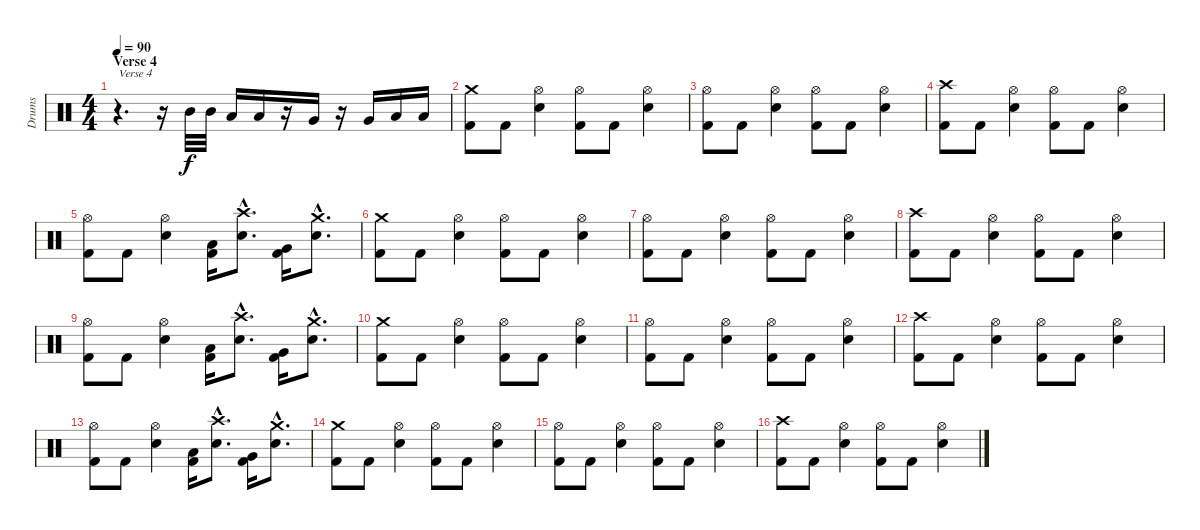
\track ("Drums" "Drums") {instrument percussion}
\staff {score}
\articulation defaults
\ts (4 4)
\section ("" "Verse 4")
\tempo 90
\clef neutral
\ks c
r.4{d txt "Verse 4" dy f} r.16 "Mid Tom (hit)".32 "Mid Tom (hit)".32 "Low Tom (hit)".16 "Low Tom (hit)".16 r.16 "Very Low Tom (hit)".16 r.16 "Very Low Tom (hit)".16 "Low Floor Tom (hit)".16 "Low Floor Tom (hit)".16 |
("Kick (hit) 2" "Crash medium (hit)").8 "Kick (hit) 2".8 ("Snare (hit) 2" "Hi-Hat (open)").4 ("Kick (hit) 2" "Hi-Hat (open)").8 "Kick (hit) 2".8 ("Snare (hit) 2" "Hi-Hat (open)").4 |
("Kick (hit) 2" "Hi-Hat (open)").8 "Kick (hit) 2".8 ("Snare (hit) 2" "Hi-Hat (open)").4 ("Kick (hit) 2" "Hi-Hat (open)").8 "Kick (hit) 2".8 ("Snare (hit) 2" "Hi-Hat (open)").4 |
("Kick (hit) 2" "Crash high (hit)").8 "Kick (hit) 2".8 ("Snare (hit) 2" "Hi-Hat (open)").4 ("Kick (hit) 2" "Hi-Hat (open)").8 "Kick (hit) 2".8 ("Snare (hit) 2" "Hi-Hat (open)").4 |
("Kick (hit) 2" "Hi-Hat (open)").8 "Kick (hit) 2".8 ("Snare (hit) 2" "Hi-Hat (open)").4 ("Kick (hit) 2" "Low Tom (hit)").16 ("Snare (hit) 2"{hac} "Crash high (hit)"{hac}).8{d} ("Kick (hit) 2" "Very Low Tom (hit)").16 ("Snare (hit) 2"{hac} "Crash medium (hit)"{hac}).8{d} |
("Kick (hit) 2" "Crash medium (hit)").8 "Kick (hit) 2".8 ("Snare (hit) 2" "Hi-Hat (open)").4 ("Kick (hit) 2" "Hi-Hat (open)").8 "Kick (hit) 2".8 ("Snare (hit) 2" "Hi-Hat (open)").4 |
("Kick (hit) 2" "Hi-Hat (open)").8 "Kick (hit) 2".8 ("Snare (hit) 2" "Hi-Hat (open)").4 ("Kick (hit) 2" "Hi-Hat (open)").8 "Kick (hit) 2".8 ("Snare (hit) 2" "Hi-Hat (open)").4 |
("Kick (hit) 2" "Crash high (hit)").8 "Kick (hit) 2".8 ("Snare (hit) 2" "Hi-Hat (open)").4 ("Kick (hit) 2" "Hi-Hat (open)").8 "Kick (hit) 2".8 ("Snare (hit) 2" "Hi-Hat (open)").4 |
("Kick (hit) 2" "Hi-Hat (open)").8 "Kick (hit) 2".8 ("Snare (hit) 2" "Hi-Hat (open)").4 ("Kick (hit) 2" "Low Tom (hit)").16 ("Snare (hit) 2"{hac} "Crash high (hit)"{hac}).8{d} ("Kick (hit) 2" "Very Low Tom (hit)").16 ("Snare (hit) 2"{hac} "Crash medium (hit)"{hac}).8{d} |
("Kick (hit) 2" "Crash medium (hit)").8 "Kick (hit) 2".8 ("Snare (hit) 2" "Hi-Hat (open)").4 ("Kick (hit) 2" "Hi-Hat (open)").8 "Kick (hit) 2".8 ("Snare (hit) 2" "Hi-Hat (open)").4 |
("Kick (hit) 2" "Hi-Hat (open)").8 "Kick (hit) 2".8 ("Snare (hit) 2" "Hi-Hat (open)").4 ("Kick (hit) 2" "Hi-Hat (open)").8 "Kick (hit) 2".8 ("Snare (hit) 2" "Hi-Hat (open)").4 |
("Kick (hit) 2" "Crash high (hit)").8 "Kick (hit) 2".8 ("Snare (hit) 2" "Hi-Hat (open)").4 ("Kick (hit) 2" "Hi-Hat (open)").8 "Kick (hit) 2".8 ("Snare (hit) 2" "Hi-Hat (open)").4 |
("Kick (hit) 2" "Hi-Hat (open)").8 "Kick (hit) 2".8 ("Snare (hit) 2" "Hi-Hat (open)").4 ("Kick (hit) 2" "Low Tom (hit)").16 ("Snare (hit) 2"{hac} "Crash high (hit)"{hac}).8{d} ("Kick (hit) 2" "Very Low Tom (hit)").16 ("Snare (hit) 2"{hac} "Crash medium (hit)"{hac}).8{d} |
("Kick (hit) 2" "Crash medium (hit)").8 "Kick (hit) 2".8 ("Snare (hit) 2" "Hi-Hat (open)").4 ("Kick (hit) 2" "Hi-Hat (open)").8 "Kick (hit) 2".8 ("Snare (hit) 2" "Hi-Hat (open)").4 |
("Kick (hit) 2" "Hi-Hat (open)").8 "Kick (hit) 2".8 ("Snare (hit) 2" "Hi-Hat (open)").4 ("Kick (hit) 2" "Hi-Hat (open)").8 "Kick (hit) 2".8 ("Snare (hit) 2" "Hi-Hat (open)").4 |
("Kick (hit) 2" "Crash high (hit)").8 "Kick (hit) 2".8 ("Snare (hit) 2" "Hi-Hat (open)").4 ("Kick (hit) 2" "Hi-Hat (open)").8 "Kick (hit) 2".8 ("Snare (hit) 2" "Hi-Hat (open)").4
